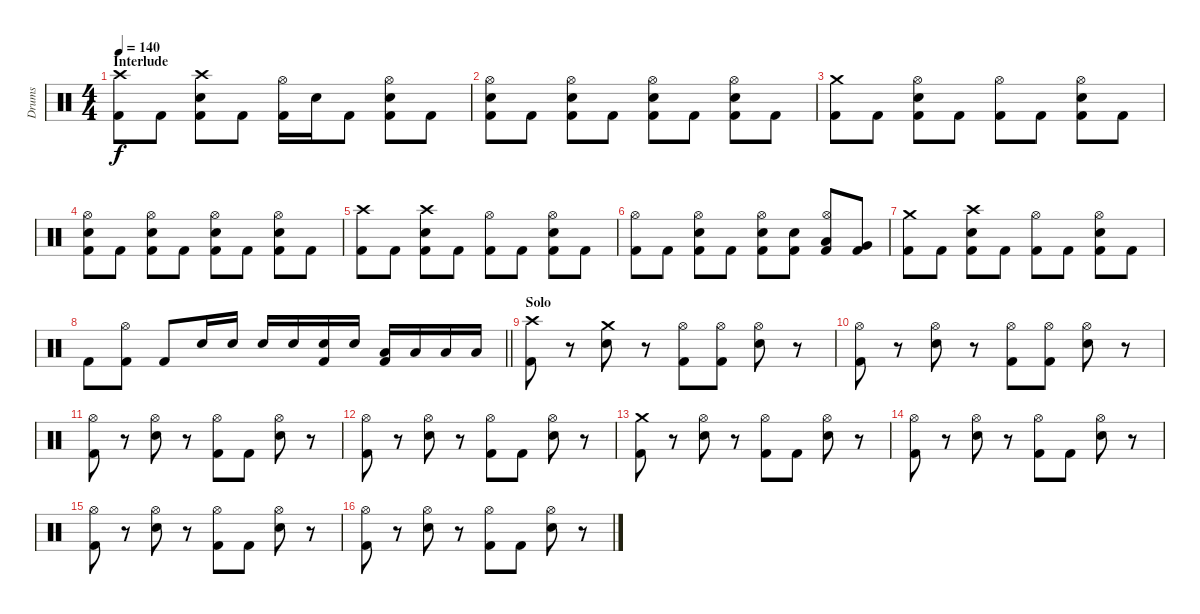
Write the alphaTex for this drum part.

\track ("Drums" "Drums") {instrument percussion}
\staff {score}
\articulation defaults
\ts (4 4)
\section ("" "Interlude")
\tempo 140
\clef neutral
\ks c
("Crash high (hit)" "Kick (hit) 2").8{dy f} "Kick (hit) 2".8 ("Crash high (hit)" "Snare (hit) 2" "Kick (hit) 2").8 "Kick (hit) 2".8 ("Hi-Hat (open)" "Kick (hit) 2").16 "Snare (hit) 2".16 "Kick (hit) 2".8 ("Hi-Hat (open)" "Snare (hit) 2" "Kick (hit) 2").8 "Kick (hit) 2".8 |
("Hi-Hat (open)" "Snare (hit) 2" "Kick (hit) 2").8 "Kick (hit) 2".8 ("Hi-Hat (open)" "Snare (hit) 2" "Kick (hit) 2").8 "Kick (hit) 2".8 ("Hi-Hat (open)" "Snare (hit) 2" "Kick (hit) 2").8 "Kick (hit) 2".8 ("Hi-Hat (open)" "Snare (hit) 2" "Kick (hit) 2").8 "Kick (hit) 2".8 |
("Crash medium (hit)" "Kick (hit) 2").8 "Kick (hit) 2".8 ("Hi-Hat (open)" "Snare (hit) 2" "Kick (hit) 2").8 "Kick (hit) 2".8 ("Hi-Hat (open)" "Kick (hit) 2").8 "Kick (hit) 2".8 ("Hi-Hat (open)" "Snare (hit) 2" "Kick (hit) 2").8 "Kick (hit) 2".8 |
("Hi-Hat (open)" "Snare (hit) 2" "Kick (hit) 2").8 "Kick (hit) 2".8 ("Hi-Hat (open)" "Snare (hit) 2" "Kick (hit) 2").8 "Kick (hit) 2".8 ("Hi-Hat (open)" "Snare (hit) 2" "Kick (hit) 2").8 "Kick (hit) 2".8 ("Hi-Hat (open)" "Snare (hit) 2" "Kick (hit) 2").8 "Kick (hit) 2".8 |
("Crash high (hit)" "Kick (hit) 2").8 "Kick (hit) 2".8 ("Crash high (hit)" "Snare (hit) 2" "Kick (hit) 2").8 "Kick (hit) 2".8 ("Hi-Hat (open)" "Kick (hit) 2").8 "Kick (hit) 2".8 ("Hi-Hat (open)" "Snare (hit) 2" "Kick (hit) 2").8 "Kick (hit) 2".8 |
("Hi-Hat (open)" "Kick (hit) 2").8 "Kick (hit) 2".8 ("Hi-Hat (open)" "Snare (hit) 2" "Kick (hit) 2").8 "Kick (hit) 2".8 ("Hi-Hat (open)" "Snare (hit) 2" "Kick (hit) 2").8 ("Snare (hit) 2" "Kick (hit) 2").8 ("Hi-Hat (open)" "Low Tom (hit)" "Kick (hit) 2").8 ("Very Low Tom (hit)" "Kick (hit) 2").8 |
("Crash medium (hit)" "Kick (hit) 2").8 "Kick (hit) 2".8 ("Crash high (hit)" "Snare (hit) 2" "Kick (hit) 2").8 "Kick (hit) 2".8 ("Hi-Hat (open)" "Kick (hit) 2").8 "Kick (hit) 2".8 ("Hi-Hat (open)" "Snare (hit) 2" "Kick (hit) 2").8 "Kick (hit) 2".8 |
\barLineRight lightlight "Kick (hit) 2".8
("Hi-Hat (open)" "Kick (hit) 2").8 "Kick (hit) 2".8 "Snare (hit) 2".16 "Snare (hit) 2".16 "Snare (hit) 2".16 "Snare (hit) 2".16 ("Snare (hit) 2" "Kick (hit) 2").16 "Snare (hit) 2".16 ("Low Floor Tom (hit)" "Kick (hit) 2").16 "Low Floor Tom (hit)".16 "Low Floor Tom (hit)".16 "Low Floor Tom (hit)".16 |
\section ("" "Solo")
("Crash high (hit)" "Kick (hit) 2").8 r.8 ("Crash medium (hit)" "Snare (hit) 2").8 r.8 ("Hi-Hat (open)" "Kick (hit) 2").8 ("Hi-Hat (open)" "Kick (hit) 2").8 ("Hi-Hat (open)" "Snare (hit) 2").8 r.8 |
("Hi-Hat (open)" "Kick (hit) 2").8 r.8 ("Hi-Hat (open)" "Snare (hit) 2").8 r.8 ("Hi-Hat (open)" "Kick (hit) 2").8 ("Hi-Hat (open)" "Kick (hit) 2").8 ("Hi-Hat (open)" "Snare (hit) 2").8 r.8 |
("Hi-Hat (open)" "Kick (hit) 2").8 r.8 ("Hi-Hat (open)" "Snare (hit) 2").8 r.8 ("Hi-Hat (open)" "Kick (hit) 2").8 "Kick (hit) 2".8 ("Hi-Hat (open)" "Snare (hit) 2").8 r.8 |
("Hi-Hat (open)" "Kick (hit) 2").8 r.8 ("Hi-Hat (open)" "Snare (hit) 2").8 r.8 ("Hi-Hat (open)" "Kick (hit) 2").8 "Kick (hit) 2".8 ("Hi-Hat (open)" "Snare (hit) 2").8 r.8 |
("Crash medium (hit)" "Kick (hit) 2").8 r.8 ("Hi-Hat (open)" "Snare (hit) 2").8 r.8 ("Hi-Hat (open)" "Kick (hit) 2").8 "Kick (hit) 2".8 ("Hi-Hat (open)" "Snare (hit) 2").8 r.8 |
("Hi-Hat (open)" "Kick (hit) 2").8 r.8 ("Hi-Hat (open)" "Snare (hit) 2").8 r.8 ("Hi-Hat (open)" "Kick (hit) 2").8 "Kick (hit) 2".8 ("Hi-Hat (open)" "Snare (hit) 2").8 r.8 |
("Hi-Hat (open)" "Kick (hit) 2").8 r.8 ("Hi-Hat (open)" "Snare (hit) 2").8 r.8 ("Hi-Hat (open)" "Kick (hit) 2").8 "Kick (hit) 2".8 ("Hi-Hat (open)" "Snare (hit) 2").8 r.8 |
("Hi-Hat (open)" "Kick (hit) 2").8 r.8 ("Hi-Hat (open)" "Snare (hit) 2").8 r.8 ("Hi-Hat (open)" "Kick (hit) 2").8 "Kick (hit) 2".8 ("Hi-Hat (open)" "Snare (hit) 2").8 r.8
